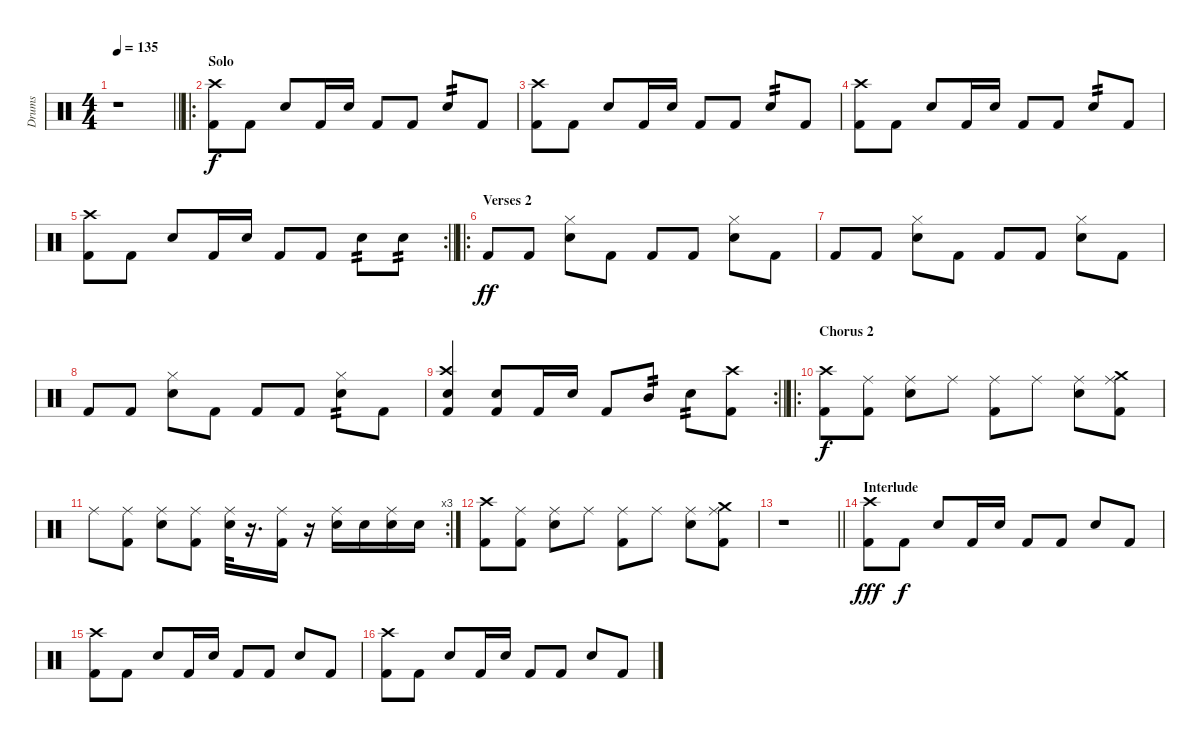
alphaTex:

\track ("Drums" "Drums") {instrument percussion}
\staff {score}
\articulation defaults
\ts (4 4)
\tempo 135
\clef neutral
\barLineRight lightlight
\ks c
r.1{dy f} |
\ro
\section ("" "Solo")
("Kick (hit) 2" "Crash high (hit)").8 "Kick (hit) 2".8 "Electric Snare (hit)".8 "Kick (hit) 2".16 "Electric Snare (hit)".16 "Kick (hit) 2".8 "Kick (hit) 2".8 "Electric Snare (hit)".8{tp 2} "Kick (hit) 2".8 |
("Kick (hit) 2" "Crash high (hit)").8 "Kick (hit) 2".8 "Electric Snare (hit)".8 "Kick (hit) 2".16 "Electric Snare (hit)".16 "Kick (hit) 2".8 "Kick (hit) 2".8 "Electric Snare (hit)".8{tp 2} "Kick (hit) 2".8 |
("Kick (hit) 2" "Crash high (hit)").8 "Kick (hit) 2".8 "Electric Snare (hit)".8 "Kick (hit) 2".16 "Electric Snare (hit)".16 "Kick (hit) 2".8 "Kick (hit) 2".8 "Electric Snare (hit)".8{tp 2} "Kick (hit) 2".8 |
\rc 2
\barLineRight lightlight
("Kick (hit) 2" "Crash high (hit)").8 "Kick (hit) 2".8 "Electric Snare (hit)".8 "Kick (hit) 2".16 "Electric Snare (hit)".16 "Kick (hit) 2".8 "Kick (hit) 2".8 "Electric Snare (hit)".8{tp 2} "Electric Snare (hit)".8{tp 2} |
\ro
\section ("" "Verses 2")
"Kick (hit) 2".8{dy ff} "Kick (hit) 2".8 ("Electric Snare (hit)" "Hi-Hat (closed)").8 "Kick (hit) 2".8 "Kick (hit) 2".8 "Kick (hit) 2".8 ("Electric Snare (hit)" "Hi-Hat (closed)").8 "Kick (hit) 2".8 |
"Kick (hit) 2".8 "Kick (hit) 2".8 ("Electric Snare (hit)" "Hi-Hat (closed)").8 "Kick (hit) 2".8 "Kick (hit) 2".8 "Kick (hit) 2".8 ("Electric Snare (hit)" "Hi-Hat (closed)").8 "Kick (hit) 2".8 |
"Kick (hit) 2".8 "Kick (hit) 2".8 ("Electric Snare (hit)" "Hi-Hat (closed)").8 "Kick (hit) 2".8 "Kick (hit) 2".8 "Kick (hit) 2".8 ("Electric Snare (hit)" "Hi-Hat (closed)").8{tp 2} "Kick (hit) 2".8 |
\rc 2
\barLineRight lightlight
("Kick (hit) 2" "Crash high (hit)" "Electric Snare (hit)").4 ("Kick (hit) 2" "Electric Snare (hit)").8 "Kick (hit) 2".16 "Electric Snare (hit)".16 "Kick (hit) 2".8 "Mid Tom (hit)".8{tp 2} "Electric Snare (hit)".8{tp 2} ("Kick (hit) 2" "Crash high (hit)").8 |
\ro
\section ("" "Chorus 2")
("Crash high (hit)" "Kick (hit) 2").8{dy f} ("Ride (middle)" "Kick (hit) 2").8 ("Ride (middle)" "Electric Snare (hit)").8 "Ride (middle)".8 ("Ride (middle)" "Kick (hit) 2").8 "Ride (middle)".8 ("Ride (middle)" "Electric Snare (hit)").8 ("Crash medium (hit)" "Ride (middle)" "Kick (hit) 2").8 |
\rc 3 "Ride (middle)".8
("Ride (middle)" "Kick (hit) 2").8 ("Ride (middle)" "Electric Snare (hit)").8 ("Ride (middle)" "Kick (hit) 2").8 ("Ride (middle)" "Electric Snare (hit)").32 r.16{d} ("Ride (middle)" "Kick (hit) 2").16 r.16 ("Ride (middle)" "Electric Snare (hit)").16 "Electric Snare (hit)".16 ("Ride (middle)" "Electric Snare (hit)").16 "Electric Snare (hit)".16 |
("Crash high (hit)" "Kick (hit) 2").8 ("Ride (middle)" "Kick (hit) 2").8 ("Ride (middle)" "Electric Snare (hit)").8 "Ride (middle)".8 ("Ride (middle)" "Kick (hit) 2").8 "Ride (middle)".8 ("Ride (middle)" "Electric Snare (hit)").8 ("Crash medium (hit)" "Ride (middle)" "Kick (hit) 2").8 |
\barLineRight lightlight
r.1 |
\section ("" "Interlude")
("Kick (hit) 2" "Crash high (hit)").8{dy fff} "Kick (hit) 2".8{dy f} "Electric Snare (hit)".8 "Kick (hit) 2".16 "Electric Snare (hit)".16 "Kick (hit) 2".8 "Kick (hit) 2".8 "Electric Snare (hit)".8 "Kick (hit) 2".8 |
("Kick (hit) 2" "Crash high (hit)").8 "Kick (hit) 2".8 "Electric Snare (hit)".8 "Kick (hit) 2".16 "Electric Snare (hit)".16 "Kick (hit) 2".8 "Kick (hit) 2".8 "Electric Snare (hit)".8 "Kick (hit) 2".8 |
("Kick (hit) 2" "Crash high (hit)").8 "Kick (hit) 2".8 "Electric Snare (hit)".8 "Kick (hit) 2".16 "Electric Snare (hit)".16 "Kick (hit) 2".8 "Kick (hit) 2".8 "Electric Snare (hit)".8 "Kick (hit) 2".8
